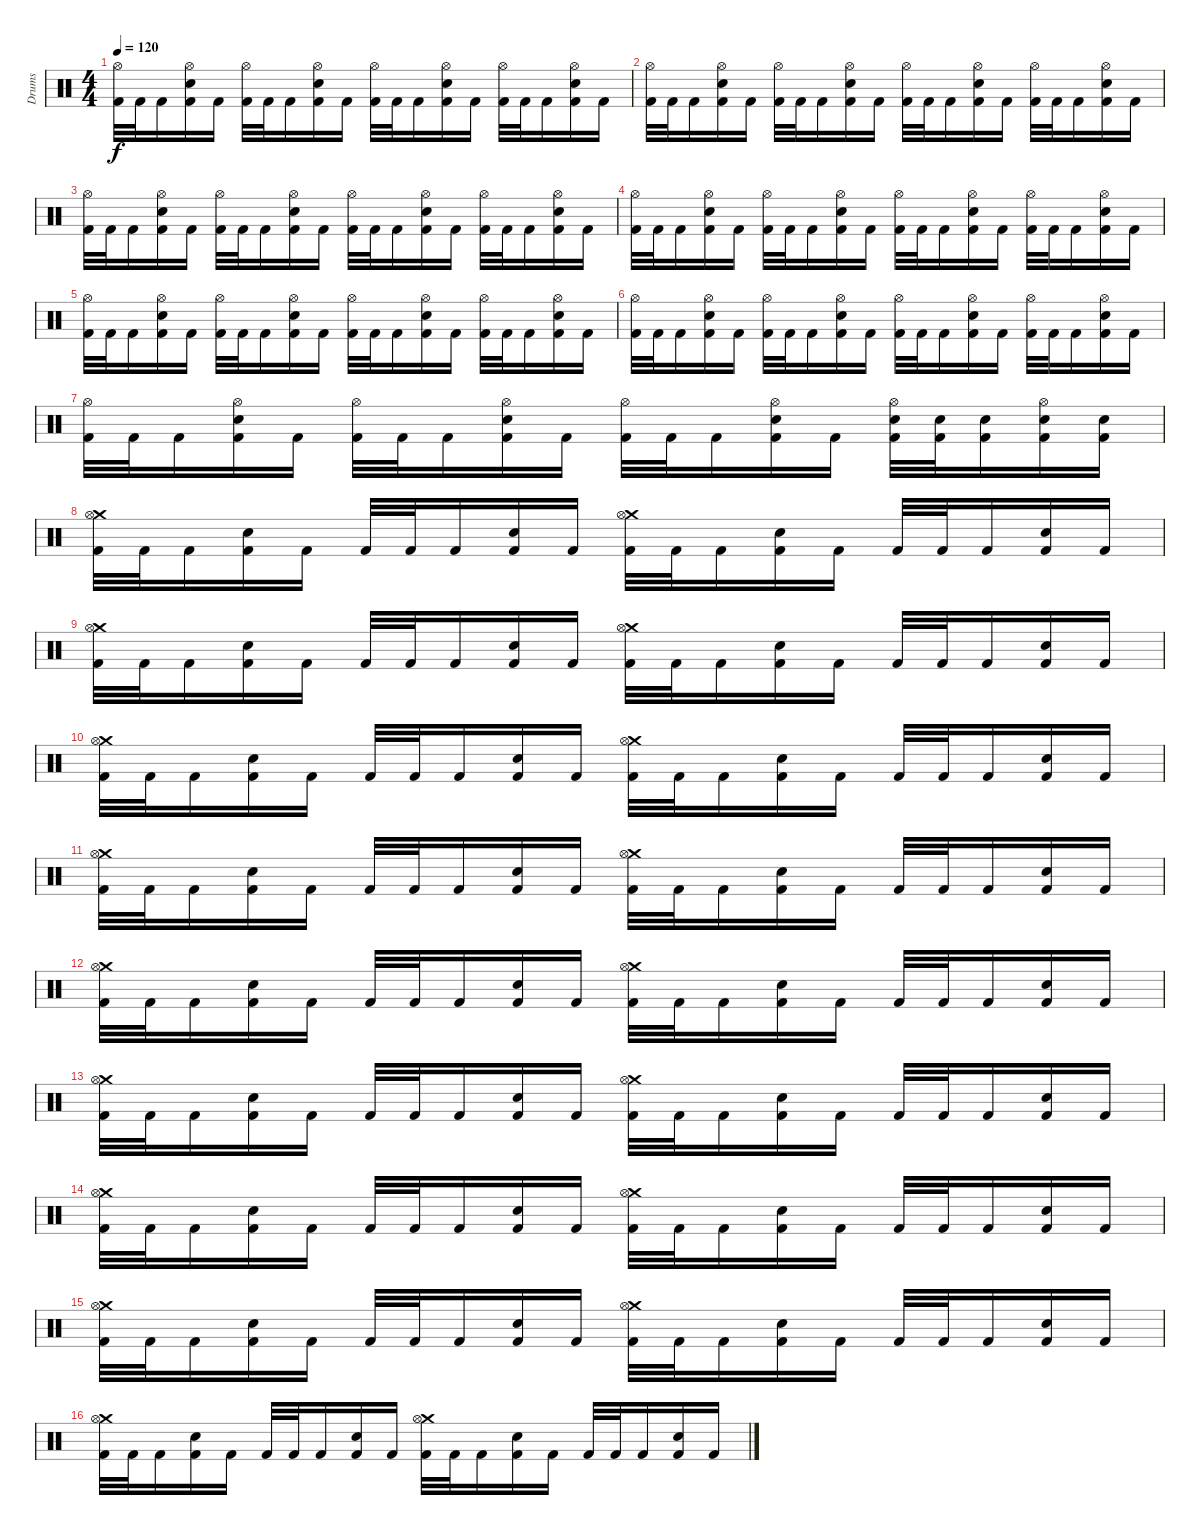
\track ("Drums" "Drums") {instrument percussion}
\staff {score}
\articulation defaults
\ts (4 4)
\tempo 120
\clef neutral
\ks c
("Hi-Hat (open)" "Kick (hit) 2").32{dy f} "Kick (hit) 2".32 "Kick (hit) 2".16 ("Hi-Hat (open)" "Electric Snare (hit)" "Kick (hit) 2").16 "Kick (hit) 2".16 ("Hi-Hat (open)" "Kick (hit) 2").32 "Kick (hit) 2".32 "Kick (hit) 2".16 ("Hi-Hat (open)" "Electric Snare (hit)" "Kick (hit) 2").16 "Kick (hit) 2".16 ("Hi-Hat (open)" "Kick (hit) 2").32 "Kick (hit) 2".32 "Kick (hit) 2".16 ("Hi-Hat (open)" "Electric Snare (hit)" "Kick (hit) 2").16 "Kick (hit) 2".16 ("Hi-Hat (open)" "Kick (hit) 2").32 "Kick (hit) 2".32 "Kick (hit) 2".16 ("Hi-Hat (open)" "Electric Snare (hit)" "Kick (hit) 2").16 "Kick (hit) 2".16 |
("Hi-Hat (open)" "Kick (hit) 2").32 "Kick (hit) 2".32 "Kick (hit) 2".16 ("Hi-Hat (open)" "Electric Snare (hit)" "Kick (hit) 2").16 "Kick (hit) 2".16 ("Hi-Hat (open)" "Kick (hit) 2").32 "Kick (hit) 2".32 "Kick (hit) 2".16 ("Hi-Hat (open)" "Electric Snare (hit)" "Kick (hit) 2").16 "Kick (hit) 2".16 ("Hi-Hat (open)" "Kick (hit) 2").32 "Kick (hit) 2".32 "Kick (hit) 2".16 ("Hi-Hat (open)" "Electric Snare (hit)" "Kick (hit) 2").16 "Kick (hit) 2".16 ("Hi-Hat (open)" "Kick (hit) 2").32 "Kick (hit) 2".32 "Kick (hit) 2".16 ("Hi-Hat (open)" "Electric Snare (hit)" "Kick (hit) 2").16 "Kick (hit) 2".16 |
("Hi-Hat (open)" "Kick (hit) 2").32 "Kick (hit) 2".32 "Kick (hit) 2".16 ("Hi-Hat (open)" "Electric Snare (hit)" "Kick (hit) 2").16 "Kick (hit) 2".16 ("Hi-Hat (open)" "Kick (hit) 2").32 "Kick (hit) 2".32 "Kick (hit) 2".16 ("Hi-Hat (open)" "Electric Snare (hit)" "Kick (hit) 2").16 "Kick (hit) 2".16 ("Hi-Hat (open)" "Kick (hit) 2").32 "Kick (hit) 2".32 "Kick (hit) 2".16 ("Hi-Hat (open)" "Electric Snare (hit)" "Kick (hit) 2").16 "Kick (hit) 2".16 ("Hi-Hat (open)" "Kick (hit) 2").32 "Kick (hit) 2".32 "Kick (hit) 2".16 ("Hi-Hat (open)" "Electric Snare (hit)" "Kick (hit) 2").16 "Kick (hit) 2".16 |
("Hi-Hat (open)" "Kick (hit) 2").32 "Kick (hit) 2".32 "Kick (hit) 2".16 ("Hi-Hat (open)" "Electric Snare (hit)" "Kick (hit) 2").16 "Kick (hit) 2".16 ("Hi-Hat (open)" "Kick (hit) 2").32 "Kick (hit) 2".32 "Kick (hit) 2".16 ("Hi-Hat (open)" "Electric Snare (hit)" "Kick (hit) 2").16 "Kick (hit) 2".16 ("Hi-Hat (open)" "Kick (hit) 2").32 "Kick (hit) 2".32 "Kick (hit) 2".16 ("Hi-Hat (open)" "Electric Snare (hit)" "Kick (hit) 2").16 "Kick (hit) 2".16 ("Hi-Hat (open)" "Kick (hit) 2").32 "Kick (hit) 2".32 "Kick (hit) 2".16 ("Hi-Hat (open)" "Electric Snare (hit)" "Kick (hit) 2").16 "Kick (hit) 2".16 |
("Hi-Hat (open)" "Kick (hit) 2").32 "Kick (hit) 2".32 "Kick (hit) 2".16 ("Hi-Hat (open)" "Electric Snare (hit)" "Kick (hit) 2").16 "Kick (hit) 2".16 ("Hi-Hat (open)" "Kick (hit) 2").32 "Kick (hit) 2".32 "Kick (hit) 2".16 ("Hi-Hat (open)" "Electric Snare (hit)" "Kick (hit) 2").16 "Kick (hit) 2".16 ("Hi-Hat (open)" "Kick (hit) 2").32 "Kick (hit) 2".32 "Kick (hit) 2".16 ("Hi-Hat (open)" "Electric Snare (hit)" "Kick (hit) 2").16 "Kick (hit) 2".16 ("Hi-Hat (open)" "Kick (hit) 2").32 "Kick (hit) 2".32 "Kick (hit) 2".16 ("Hi-Hat (open)" "Electric Snare (hit)" "Kick (hit) 2").16 "Kick (hit) 2".16 |
("Hi-Hat (open)" "Kick (hit) 2").32 "Kick (hit) 2".32 "Kick (hit) 2".16 ("Hi-Hat (open)" "Electric Snare (hit)" "Kick (hit) 2").16 "Kick (hit) 2".16 ("Hi-Hat (open)" "Kick (hit) 2").32 "Kick (hit) 2".32 "Kick (hit) 2".16 ("Hi-Hat (open)" "Electric Snare (hit)" "Kick (hit) 2").16 "Kick (hit) 2".16 ("Hi-Hat (open)" "Kick (hit) 2").32 "Kick (hit) 2".32 "Kick (hit) 2".16 ("Hi-Hat (open)" "Electric Snare (hit)" "Kick (hit) 2").16 "Kick (hit) 2".16 ("Hi-Hat (open)" "Kick (hit) 2").32 "Kick (hit) 2".32 "Kick (hit) 2".16 ("Hi-Hat (open)" "Electric Snare (hit)" "Kick (hit) 2").16 "Kick (hit) 2".16 |
("Hi-Hat (open)" "Kick (hit) 2").32 "Kick (hit) 2".32 "Kick (hit) 2".16 ("Hi-Hat (open)" "Electric Snare (hit)" "Kick (hit) 2").16 "Kick (hit) 2".16 ("Hi-Hat (open)" "Kick (hit) 2").32 "Kick (hit) 2".32 "Kick (hit) 2".16 ("Hi-Hat (open)" "Electric Snare (hit)" "Kick (hit) 2").16 "Kick (hit) 2".16 ("Hi-Hat (open)" "Kick (hit) 2").32 "Kick (hit) 2".32 "Kick (hit) 2".16 ("Hi-Hat (open)" "Electric Snare (hit)" "Kick (hit) 2").16 "Kick (hit) 2".16 ("Hi-Hat (open)" "Electric Snare (hit)" "Kick (hit) 2").32 ("Electric Snare (hit)" "Kick (hit) 2").32 ("Electric Snare (hit)" "Kick (hit) 2").16 ("Hi-Hat (open)" "Electric Snare (hit)" "Kick (hit) 2").16 ("Electric Snare (hit)" "Kick (hit) 2").16 |
("Crash medium (hit)" "Hi-Hat (open)" "Kick (hit) 2").32 "Kick (hit) 2".32 "Kick (hit) 2".16 ("Electric Snare (hit)" "Kick (hit) 2").16 "Kick (hit) 2".16 "Kick (hit) 2".32 "Kick (hit) 2".32 "Kick (hit) 2".16 ("Electric Snare (hit)" "Kick (hit) 2").16 "Kick (hit) 2".16 ("Crash medium (hit)" "Hi-Hat (open)" "Kick (hit) 2").32 "Kick (hit) 2".32 "Kick (hit) 2".16 ("Electric Snare (hit)" "Kick (hit) 2").16 "Kick (hit) 2".16 "Kick (hit) 2".32 "Kick (hit) 2".32 "Kick (hit) 2".16 ("Electric Snare (hit)" "Kick (hit) 2").16 "Kick (hit) 2".16 |
("Crash medium (hit)" "Hi-Hat (open)" "Kick (hit) 2").32 "Kick (hit) 2".32 "Kick (hit) 2".16 ("Electric Snare (hit)" "Kick (hit) 2").16 "Kick (hit) 2".16 "Kick (hit) 2".32 "Kick (hit) 2".32 "Kick (hit) 2".16 ("Electric Snare (hit)" "Kick (hit) 2").16 "Kick (hit) 2".16 ("Crash medium (hit)" "Hi-Hat (open)" "Kick (hit) 2").32 "Kick (hit) 2".32 "Kick (hit) 2".16 ("Electric Snare (hit)" "Kick (hit) 2").16 "Kick (hit) 2".16 "Kick (hit) 2".32 "Kick (hit) 2".32 "Kick (hit) 2".16 ("Electric Snare (hit)" "Kick (hit) 2").16 "Kick (hit) 2".16 |
("Crash medium (hit)" "Hi-Hat (open)" "Kick (hit) 2").32 "Kick (hit) 2".32 "Kick (hit) 2".16 ("Electric Snare (hit)" "Kick (hit) 2").16 "Kick (hit) 2".16 "Kick (hit) 2".32 "Kick (hit) 2".32 "Kick (hit) 2".16 ("Electric Snare (hit)" "Kick (hit) 2").16 "Kick (hit) 2".16 ("Crash medium (hit)" "Hi-Hat (open)" "Kick (hit) 2").32 "Kick (hit) 2".32 "Kick (hit) 2".16 ("Electric Snare (hit)" "Kick (hit) 2").16 "Kick (hit) 2".16 "Kick (hit) 2".32 "Kick (hit) 2".32 "Kick (hit) 2".16 ("Electric Snare (hit)" "Kick (hit) 2").16 "Kick (hit) 2".16 |
("Crash medium (hit)" "Hi-Hat (open)" "Kick (hit) 2").32 "Kick (hit) 2".32 "Kick (hit) 2".16 ("Electric Snare (hit)" "Kick (hit) 2").16 "Kick (hit) 2".16 "Kick (hit) 2".32 "Kick (hit) 2".32 "Kick (hit) 2".16 ("Electric Snare (hit)" "Kick (hit) 2").16 "Kick (hit) 2".16 ("Crash medium (hit)" "Hi-Hat (open)" "Kick (hit) 2").32 "Kick (hit) 2".32 "Kick (hit) 2".16 ("Electric Snare (hit)" "Kick (hit) 2").16 "Kick (hit) 2".16 "Kick (hit) 2".32 "Kick (hit) 2".32 "Kick (hit) 2".16 ("Electric Snare (hit)" "Kick (hit) 2").16 "Kick (hit) 2".16 |
("Crash medium (hit)" "Hi-Hat (open)" "Kick (hit) 2").32 "Kick (hit) 2".32 "Kick (hit) 2".16 ("Electric Snare (hit)" "Kick (hit) 2").16 "Kick (hit) 2".16 "Kick (hit) 2".32 "Kick (hit) 2".32 "Kick (hit) 2".16 ("Electric Snare (hit)" "Kick (hit) 2").16 "Kick (hit) 2".16 ("Crash medium (hit)" "Hi-Hat (open)" "Kick (hit) 2").32 "Kick (hit) 2".32 "Kick (hit) 2".16 ("Electric Snare (hit)" "Kick (hit) 2").16 "Kick (hit) 2".16 "Kick (hit) 2".32 "Kick (hit) 2".32 "Kick (hit) 2".16 ("Electric Snare (hit)" "Kick (hit) 2").16 "Kick (hit) 2".16 |
("Crash medium (hit)" "Hi-Hat (open)" "Kick (hit) 2").32 "Kick (hit) 2".32 "Kick (hit) 2".16 ("Electric Snare (hit)" "Kick (hit) 2").16 "Kick (hit) 2".16 "Kick (hit) 2".32 "Kick (hit) 2".32 "Kick (hit) 2".16 ("Electric Snare (hit)" "Kick (hit) 2").16 "Kick (hit) 2".16 ("Crash medium (hit)" "Hi-Hat (open)" "Kick (hit) 2").32 "Kick (hit) 2".32 "Kick (hit) 2".16 ("Electric Snare (hit)" "Kick (hit) 2").16 "Kick (hit) 2".16 "Kick (hit) 2".32 "Kick (hit) 2".32 "Kick (hit) 2".16 ("Electric Snare (hit)" "Kick (hit) 2").16 "Kick (hit) 2".16 |
("Crash medium (hit)" "Hi-Hat (open)" "Kick (hit) 2").32 "Kick (hit) 2".32 "Kick (hit) 2".16 ("Electric Snare (hit)" "Kick (hit) 2").16 "Kick (hit) 2".16 "Kick (hit) 2".32 "Kick (hit) 2".32 "Kick (hit) 2".16 ("Electric Snare (hit)" "Kick (hit) 2").16 "Kick (hit) 2".16 ("Crash medium (hit)" "Hi-Hat (open)" "Kick (hit) 2").32 "Kick (hit) 2".32 "Kick (hit) 2".16 ("Electric Snare (hit)" "Kick (hit) 2").16 "Kick (hit) 2".16 "Kick (hit) 2".32 "Kick (hit) 2".32 "Kick (hit) 2".16 ("Electric Snare (hit)" "Kick (hit) 2").16 "Kick (hit) 2".16 |
("Crash medium (hit)" "Hi-Hat (open)" "Kick (hit) 2").32 "Kick (hit) 2".32 "Kick (hit) 2".16 ("Electric Snare (hit)" "Kick (hit) 2").16 "Kick (hit) 2".16 "Kick (hit) 2".32 "Kick (hit) 2".32 "Kick (hit) 2".16 ("Electric Snare (hit)" "Kick (hit) 2").16 "Kick (hit) 2".16 ("Crash medium (hit)" "Hi-Hat (open)" "Kick (hit) 2").32 "Kick (hit) 2".32 "Kick (hit) 2".16 ("Electric Snare (hit)" "Kick (hit) 2").16 "Kick (hit) 2".16 "Kick (hit) 2".32 "Kick (hit) 2".32 "Kick (hit) 2".16 ("Electric Snare (hit)" "Kick (hit) 2").16 "Kick (hit) 2".16 |
("Crash medium (hit)" "Hi-Hat (open)" "Kick (hit) 2").32 "Kick (hit) 2".32 "Kick (hit) 2".16 ("Electric Snare (hit)" "Kick (hit) 2").16 "Kick (hit) 2".16 "Kick (hit) 2".32 "Kick (hit) 2".32 "Kick (hit) 2".16 ("Electric Snare (hit)" "Kick (hit) 2").16 "Kick (hit) 2".16 ("Crash medium (hit)" "Hi-Hat (open)" "Kick (hit) 2").32 "Kick (hit) 2".32 "Kick (hit) 2".16 ("Electric Snare (hit)" "Kick (hit) 2").16 "Kick (hit) 2".16 "Kick (hit) 2".32 "Kick (hit) 2".32 "Kick (hit) 2".16 ("Electric Snare (hit)" "Kick (hit) 2").16 "Kick (hit) 2".16
